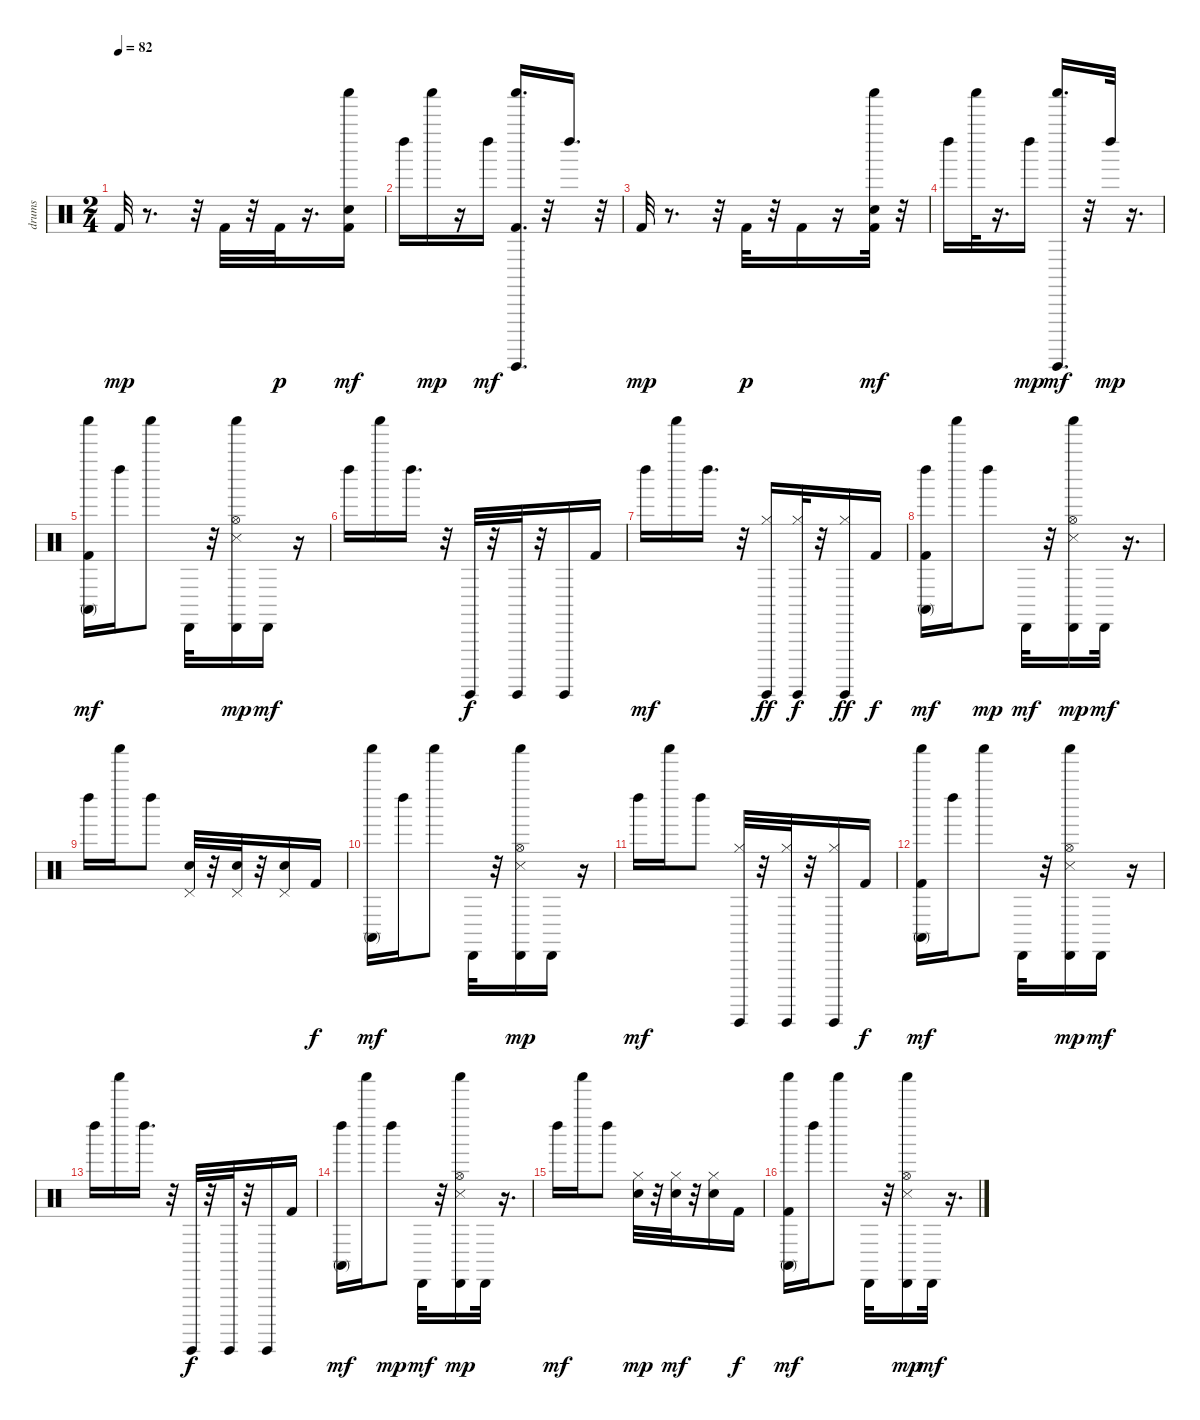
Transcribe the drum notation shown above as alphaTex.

\track ("drums" "drums") {instrument percussion}
\staff {score}
\articulation defaults
\ts (2 4)
\tempo 82
\clef neutral
\ks c "Kick (hit) 2".32{dy mp}
r.8{d} r.32 "Kick (hit) 2".32 r.32 "Kick (hit) 2".32{dy p} r.16{d} ("Kick (hit) 2" "Hand Clap (hit)" "Shaker (hit)").16{dy mf} |
"Left Maraca (hit)".16 "Shaker (hit)".16{dy mp} r.16 "Left Maraca (hit)".16{dy mf} ("Kick (hit) 2" "Guiro (hit)" "Shaker (hit)").16{d} r.32 "Left Maraca (hit)".16{d} r.32 |
"Kick (hit) 2".32{dy mp} r.8{d} r.32 "Kick (hit) 2".32{dy p} r.32 "Kick (hit) 2".16 r.16 ("Kick (hit) 2" "Hand Clap (hit)" "Shaker (hit)").32{dy mf} r.32 |
"Left Maraca (hit)".16 "Shaker (hit)".32 r.16{d} "Left Maraca (hit)".16{dy mp} ("Guiro (hit)" "Shaker (hit)").16{d dy mf} r.32 "Left Maraca (hit)".32{dy mp} r.16{d} |
("Kick (hit) 2" "Shaker (hit)" "Conga high (mute)").16{dy mf} "Left Maraca (hit)".16 "Shaker (hit)".8 "Cabasa (hit)".32 r.32 ("Snare (side stick) 3" "Shaker (hit)" "Hi-Hat (open)" "Cabasa (hit)").16{dy mp} "Cabasa (hit)".16{dy mf} r.16 |
"Left Maraca (hit)".16 "Shaker (hit)".16 "Left Maraca (hit)".16{d} r.32 "Guiro (hit)".32{dy f} r.32 "Guiro (hit)".32 r.32 "Guiro (hit)".16 "Kick (hit) 2".16 |
"Left Maraca (hit)".16{dy mf} "Shaker (hit)".16 "Left Maraca (hit)".16{d} r.32 ("Hi-Hat (closed)" "Guiro (hit)").16{dy ff} ("Guiro (hit)" "Hi-Hat (closed)").32{dy f} r.32 ("Guiro (hit)" "Hi-Hat (closed)").16{dy ff} "Kick (hit) 2".16{dy f} |
("Kick (hit) 2" "Left Maraca (hit)" "Conga high (mute)").16{dy mf} "Shaker (hit)".16 "Left Maraca (hit)".8{dy mp} "Cabasa (hit)".32{dy mf} r.32 ("Cabasa (hit)" "Snare (side stick) 3" "Shaker (hit)" "Hi-Hat (open)").16{dy mp} "Cabasa (hit)".32{dy mf} r.16{d} |
"Left Maraca (hit)".16 "Shaker (hit)".16 "Left Maraca (hit)".8 ("Hand Clap (hit)" "Pedal Hi-Hat (hit)").32 r.32 ("Pedal Hi-Hat (hit)" "Hand Clap (hit)").32 r.32 ("Pedal Hi-Hat (hit)" "Hand Clap (hit)").16 "Kick (hit) 2".16{dy f} |
("Shaker (hit)" "Conga high (mute)").16{dy mf} "Left Maraca (hit)".16 "Shaker (hit)".8 "Cabasa (hit)".32 r.32 ("Cabasa (hit)" "Snare (side stick) 3" "Shaker (hit)" "Hi-Hat (open)").16{dy mp} "Cabasa (hit)".16 r.16 |
"Left Maraca (hit)".16{dy mf} "Shaker (hit)".16 "Left Maraca (hit)".8 ("Hi-Hat (closed)" "Guiro (hit)").32 r.32 ("Guiro (hit)" "Hi-Hat (closed)").32 r.32 ("Guiro (hit)" "Hi-Hat (closed)").16 "Kick (hit) 2".16{dy f} |
("Kick (hit) 2" "Shaker (hit)" "Conga high (mute)").16{dy mf} "Left Maraca (hit)".16 "Shaker (hit)".8 "Cabasa (hit)".32 r.32 ("Snare (side stick) 3" "Shaker (hit)" "Hi-Hat (open)" "Cabasa (hit)").16{dy mp} "Cabasa (hit)".16{dy mf} r.16 |
"Left Maraca (hit)".16 "Shaker (hit)".16 "Left Maraca (hit)".16{d} r.32 "Guiro (hit)".32{dy f} r.32 "Guiro (hit)".32 r.32 "Guiro (hit)".16 "Kick (hit) 2".16 |
("Left Maraca (hit)" "Conga high (mute)").16{dy mf} "Shaker (hit)".16 "Left Maraca (hit)".8{dy mp} "Cabasa (hit)".32{dy mf} r.32 ("Snare (side stick) 3" "Shaker (hit)" "Hi-Hat (open)" "Cabasa (hit)").16{dy mp} "Cabasa (hit)".32 r.16{d} |
"Left Maraca (hit)".16{dy mf} "Shaker (hit)".16 "Left Maraca (hit)".8 ("Hand Clap (hit)" "Hi-Hat (closed)").32{dy mp} r.32 ("Hi-Hat (closed)" "Hand Clap (hit)").32{dy mf} r.32 ("Hi-Hat (closed)" "Hand Clap (hit)").16 "Kick (hit) 2".16{dy f} |
("Kick (hit) 2" "Shaker (hit)" "Conga high (mute)").16{dy mf} "Left Maraca (hit)".16 "Shaker (hit)".8 "Cabasa (hit)".32 r.32 ("Cabasa (hit)" "Hi-Hat (open)" "Shaker (hit)" "Snare (side stick) 3").16{dy mp} "Cabasa (hit)".32{dy mf} r.16{d}
